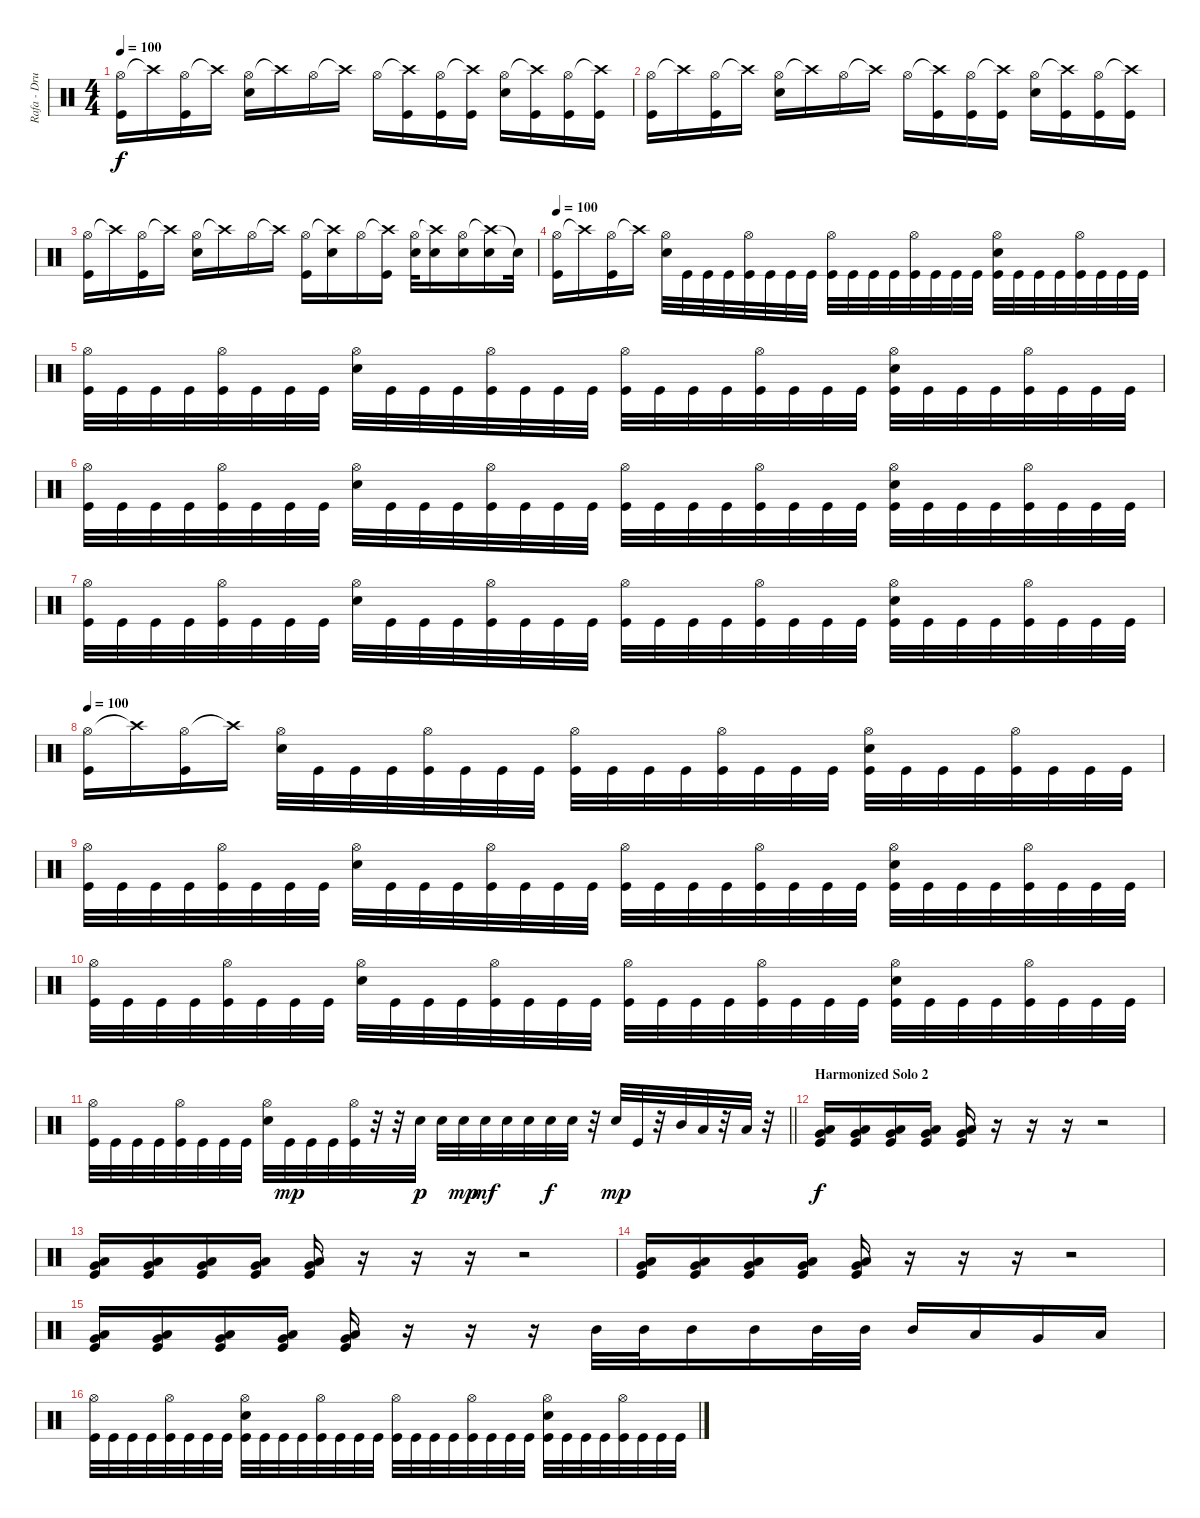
\track ("Rafa - Drums" "Rafa - Dru") {instrument percussion}
\staff {score}
\articulation defaults
\ts (4 4)
\tempo 100
\clef neutral
\ks c
("Hi-Hat (open)" "Kick (hit)").16{dy f} "Crash high (hit)"{t}.16 ("Hi-Hat (open)" "Kick (hit)").16 "Crash high (hit)"{t}.16 ("Hi-Hat (open)" "Electric Snare (hit)").16 "Crash high (hit)"{t}.16 "Hi-Hat (open)".16 "Crash high (hit)"{t}.16 "Hi-Hat (open)".16 ("Crash high (hit)"{t} "Kick (hit)").16 ("Hi-Hat (open)" "Kick (hit)").16 ("Crash high (hit)"{t} "Kick (hit)").16 ("Hi-Hat (open)" "Electric Snare (hit)").16 ("Crash high (hit)"{t} "Kick (hit)").16 ("Hi-Hat (open)" "Kick (hit)").16 ("Crash high (hit)"{t} "Kick (hit)").16 |
("Hi-Hat (open)" "Kick (hit)").16 "Crash high (hit)"{t}.16 ("Hi-Hat (open)" "Kick (hit)").16 "Crash high (hit)"{t}.16 ("Hi-Hat (open)" "Electric Snare (hit)").16 "Crash high (hit)"{t}.16 "Hi-Hat (open)".16 "Crash high (hit)"{t}.16 "Hi-Hat (open)".16 ("Crash high (hit)"{t} "Kick (hit)").16 ("Hi-Hat (open)" "Kick (hit)").16 ("Crash high (hit)"{t} "Kick (hit)").16 ("Hi-Hat (open)" "Electric Snare (hit)").16 ("Crash high (hit)"{t} "Kick (hit)").16 ("Hi-Hat (open)" "Kick (hit)").16 ("Crash high (hit)"{t} "Kick (hit)").16 |
("Hi-Hat (open)" "Kick (hit)").16 "Crash high (hit)"{t}.16 ("Hi-Hat (open)" "Kick (hit)").16 "Crash high (hit)"{t}.16 ("Hi-Hat (open)" "Electric Snare (hit)").16 "Crash high (hit)"{t}.16 "Hi-Hat (open)".16 "Crash high (hit)"{t}.16 ("Hi-Hat (open)" "Kick (hit)").16 ("Crash high (hit)"{t} "Electric Snare (hit)").16 "Hi-Hat (open)".16 ("Crash high (hit)"{t} "Kick (hit)").16 ("Hi-Hat (open)" "Electric Snare (hit)").32 ("Crash high (hit)"{t} "Electric Snare (hit)").16 ("Hi-Hat (open)" "Electric Snare (hit)").16 ("Crash high (hit)"{t} "Electric Snare (hit)").16 "Snare (hit)"{t}.32 |
\tempo 100
("Hi-Hat (open)" "Kick (hit)").16 "Crash high (hit)"{t}.16 ("Hi-Hat (open)" "Kick (hit)").16 "Crash high (hit)"{t}.16 ("Hi-Hat (open)" "Electric Snare (hit)").32 "Kick (hit)".32 "Kick (hit)".32 "Kick (hit)".32 ("Hi-Hat (open)" "Kick (hit)").32 "Kick (hit)".32 "Kick (hit)".32 "Kick (hit)".32 ("Hi-Hat (open)" "Kick (hit)").32 "Kick (hit)".32 "Kick (hit)".32 "Kick (hit)".32 ("Hi-Hat (open)" "Kick (hit)").32 "Kick (hit)".32 "Kick (hit)".32 "Kick (hit)".32 ("Hi-Hat (open)" "Electric Snare (hit)" "Kick (hit)").32 "Kick (hit)".32 "Kick (hit)".32 "Kick (hit)".32 ("Hi-Hat (open)" "Kick (hit)").32 "Kick (hit)".32 "Kick (hit)".32 "Kick (hit)".32 |
("Hi-Hat (open)" "Kick (hit)").32 "Kick (hit)".32 "Kick (hit)".32 "Kick (hit)".32 ("Hi-Hat (open)" "Kick (hit)").32 "Kick (hit)".32 "Kick (hit)".32 "Kick (hit)".32 ("Hi-Hat (open)" "Electric Snare (hit)").32 "Kick (hit)".32 "Kick (hit)".32 "Kick (hit)".32 ("Hi-Hat (open)" "Kick (hit)").32 "Kick (hit)".32 "Kick (hit)".32 "Kick (hit)".32 ("Hi-Hat (open)" "Kick (hit)").32 "Kick (hit)".32 "Kick (hit)".32 "Kick (hit)".32 ("Hi-Hat (open)" "Kick (hit)").32 "Kick (hit)".32 "Kick (hit)".32 "Kick (hit)".32 ("Hi-Hat (open)" "Electric Snare (hit)" "Kick (hit)").32 "Kick (hit)".32 "Kick (hit)".32 "Kick (hit)".32 ("Hi-Hat (open)" "Kick (hit)").32 "Kick (hit)".32 "Kick (hit)".32 "Kick (hit)".32 |
("Hi-Hat (open)" "Kick (hit)").32 "Kick (hit)".32 "Kick (hit)".32 "Kick (hit)".32 ("Hi-Hat (open)" "Kick (hit)").32 "Kick (hit)".32 "Kick (hit)".32 "Kick (hit)".32 ("Hi-Hat (open)" "Electric Snare (hit)").32 "Kick (hit)".32 "Kick (hit)".32 "Kick (hit)".32 ("Hi-Hat (open)" "Kick (hit)").32 "Kick (hit)".32 "Kick (hit)".32 "Kick (hit)".32 ("Hi-Hat (open)" "Kick (hit)").32 "Kick (hit)".32 "Kick (hit)".32 "Kick (hit)".32 ("Hi-Hat (open)" "Kick (hit)").32 "Kick (hit)".32 "Kick (hit)".32 "Kick (hit)".32 ("Hi-Hat (open)" "Electric Snare (hit)" "Kick (hit)").32 "Kick (hit)".32 "Kick (hit)".32 "Kick (hit)".32 ("Hi-Hat (open)" "Kick (hit)").32 "Kick (hit)".32 "Kick (hit)".32 "Kick (hit)".32 |
("Hi-Hat (open)" "Kick (hit)").32 "Kick (hit)".32 "Kick (hit)".32 "Kick (hit)".32 ("Hi-Hat (open)" "Kick (hit)").32 "Kick (hit)".32 "Kick (hit)".32 "Kick (hit)".32 ("Hi-Hat (open)" "Electric Snare (hit)").32 "Kick (hit)".32 "Kick (hit)".32 "Kick (hit)".32 ("Hi-Hat (open)" "Kick (hit)").32 "Kick (hit)".32 "Kick (hit)".32 "Kick (hit)".32 ("Hi-Hat (open)" "Kick (hit)").32 "Kick (hit)".32 "Kick (hit)".32 "Kick (hit)".32 ("Hi-Hat (open)" "Kick (hit)").32 "Kick (hit)".32 "Kick (hit)".32 "Kick (hit)".32 ("Hi-Hat (open)" "Electric Snare (hit)" "Kick (hit)").32 "Kick (hit)".32 "Kick (hit)".32 "Kick (hit)".32 ("Hi-Hat (open)" "Kick (hit)").32 "Kick (hit)".32 "Kick (hit)".32 "Kick (hit)".32 |
\tempo 100
("Hi-Hat (open)" "Kick (hit)").16 "Crash high (hit)"{t}.16 ("Hi-Hat (open)" "Kick (hit)").16 "Crash high (hit)"{t}.16 ("Hi-Hat (open)" "Electric Snare (hit)").32 "Kick (hit)".32 "Kick (hit)".32 "Kick (hit)".32 ("Hi-Hat (open)" "Kick (hit)").32 "Kick (hit)".32 "Kick (hit)".32 "Kick (hit)".32 ("Hi-Hat (open)" "Kick (hit)").32 "Kick (hit)".32 "Kick (hit)".32 "Kick (hit)".32 ("Hi-Hat (open)" "Kick (hit)").32 "Kick (hit)".32 "Kick (hit)".32 "Kick (hit)".32 ("Hi-Hat (open)" "Electric Snare (hit)" "Kick (hit)").32 "Kick (hit)".32 "Kick (hit)".32 "Kick (hit)".32 ("Hi-Hat (open)" "Kick (hit)").32 "Kick (hit)".32 "Kick (hit)".32 "Kick (hit)".32 |
("Hi-Hat (open)" "Kick (hit)").32 "Kick (hit)".32 "Kick (hit)".32 "Kick (hit)".32 ("Hi-Hat (open)" "Kick (hit)").32 "Kick (hit)".32 "Kick (hit)".32 "Kick (hit)".32 ("Hi-Hat (open)" "Electric Snare (hit)").32 "Kick (hit)".32 "Kick (hit)".32 "Kick (hit)".32 ("Hi-Hat (open)" "Kick (hit)").32 "Kick (hit)".32 "Kick (hit)".32 "Kick (hit)".32 ("Hi-Hat (open)" "Kick (hit)").32 "Kick (hit)".32 "Kick (hit)".32 "Kick (hit)".32 ("Hi-Hat (open)" "Kick (hit)").32 "Kick (hit)".32 "Kick (hit)".32 "Kick (hit)".32 ("Hi-Hat (open)" "Electric Snare (hit)" "Kick (hit)").32 "Kick (hit)".32 "Kick (hit)".32 "Kick (hit)".32 ("Hi-Hat (open)" "Kick (hit)").32 "Kick (hit)".32 "Kick (hit)".32 "Kick (hit)".32 |
("Hi-Hat (open)" "Kick (hit)").32 "Kick (hit)".32 "Kick (hit)".32 "Kick (hit)".32 ("Hi-Hat (open)" "Kick (hit)").32 "Kick (hit)".32 "Kick (hit)".32 "Kick (hit)".32 ("Hi-Hat (open)" "Electric Snare (hit)").32 "Kick (hit)".32 "Kick (hit)".32 "Kick (hit)".32 ("Hi-Hat (open)" "Kick (hit)").32 "Kick (hit)".32 "Kick (hit)".32 "Kick (hit)".32 ("Hi-Hat (open)" "Kick (hit)").32 "Kick (hit)".32 "Kick (hit)".32 "Kick (hit)".32 ("Hi-Hat (open)" "Kick (hit)").32 "Kick (hit)".32 "Kick (hit)".32 "Kick (hit)".32 ("Hi-Hat (open)" "Electric Snare (hit)" "Kick (hit)").32 "Kick (hit)".32 "Kick (hit)".32 "Kick (hit)".32 ("Hi-Hat (open)" "Kick (hit)").32 "Kick (hit)".32 "Kick (hit)".32 "Kick (hit)".32 |
\barLineRight lightlight
("Hi-Hat (open)" "Kick (hit)").32 "Kick (hit)".32 "Kick (hit)".32 "Kick (hit)".32 ("Hi-Hat (open)" "Kick (hit)").32 "Kick (hit)".32 "Kick (hit)".32 "Kick (hit)".32 ("Hi-Hat (open)" "Electric Snare (hit)").32 "Kick (hit)".32{dy mp} "Kick (hit)".32 "Kick (hit)".32 ("Hi-Hat (open)" "Kick (hit)").32 r.32 r.32 "Electric Snare (hit)".32{dy p} "Electric Snare (hit)".32 "Electric Snare (hit)".32{dy mp} "Electric Snare (hit)".32{dy mf} "Electric Snare (hit)".32 "Electric Snare (hit)".32 "Electric Snare (hit)".32{dy f} "Electric Snare (hit)".32 r.32 "Electric Snare (hit)".32{dy mp} "Kick (hit)".32 r.32 "Mid Tom (hit)".32 "Low Tom (hit)".32 r.32 "Low Tom (hit)".32 r.32 |
\section ("" "Harmonized Solo 2")
("Very Low Tom (hit)" "Low Floor Tom (hit)" "Kick (hit)").16{dy f} ("Very Low Tom (hit)" "Low Floor Tom (hit)" "Kick (hit)").16 ("Very Low Tom (hit)" "Low Floor Tom (hit)" "Kick (hit)").16 ("Very Low Tom (hit)" "Low Floor Tom (hit)" "Kick (hit)").16 ("Very Low Tom (hit)" "Low Floor Tom (hit)" "Kick (hit)").16 r.16 r.16 r.16 r.2 |
("Very Low Tom (hit)" "Low Floor Tom (hit)" "Kick (hit)").16 ("Very Low Tom (hit)" "Low Floor Tom (hit)" "Kick (hit)").16 ("Very Low Tom (hit)" "Low Floor Tom (hit)" "Kick (hit)").16 ("Very Low Tom (hit)" "Low Floor Tom (hit)" "Kick (hit)").16 ("Very Low Tom (hit)" "Low Floor Tom (hit)" "Kick (hit)").16 r.16 r.16 r.16 r.2 |
("Very Low Tom (hit)" "Low Floor Tom (hit)" "Kick (hit)").16 ("Very Low Tom (hit)" "Low Floor Tom (hit)" "Kick (hit)").16 ("Very Low Tom (hit)" "Low Floor Tom (hit)" "Kick (hit)").16 ("Very Low Tom (hit)" "Low Floor Tom (hit)" "Kick (hit)").16 ("Very Low Tom (hit)" "Low Floor Tom (hit)" "Kick (hit)").16 r.16 r.16 r.16 r.2 |
("Very Low Tom (hit)" "Low Floor Tom (hit)" "Kick (hit)").16 ("Very Low Tom (hit)" "Low Floor Tom (hit)" "Kick (hit)").16 ("Very Low Tom (hit)" "Low Floor Tom (hit)" "Kick (hit)").16 ("Very Low Tom (hit)" "Low Floor Tom (hit)" "Kick (hit)").16 ("Very Low Tom (hit)" "Low Floor Tom (hit)" "Kick (hit)").16 r.16 r.16 r.16 "Mid Tom (hit)".32 "Mid Tom (hit)".32 "Mid Tom (hit)".16 "Mid Tom (hit)".16 "Mid Tom (hit)".32 "Mid Tom (hit)".32 "Mid Tom (hit)".16 "Low Tom (hit)".16 "Very Low Tom (hit)".16 "Low Floor Tom (hit)".16 |
("Hi-Hat (open)" "Kick (hit)").32 "Kick (hit)".32 "Kick (hit)".32 "Kick (hit)".32 ("Hi-Hat (open)" "Kick (hit)").32 "Kick (hit)".32 "Kick (hit)".32 "Kick (hit)".32 ("Hi-Hat (open)" "Electric Snare (hit)" "Kick (hit)").32 "Kick (hit)".32 "Kick (hit)".32 "Kick (hit)".32 ("Hi-Hat (open)" "Kick (hit)").32 "Kick (hit)".32 "Kick (hit)".32 "Kick (hit)".32 ("Hi-Hat (open)" "Kick (hit)").32 "Kick (hit)".32 "Kick (hit)".32 "Kick (hit)".32 ("Hi-Hat (open)" "Kick (hit)").32 "Kick (hit)".32 "Kick (hit)".32 "Kick (hit)".32 ("Electric Snare (hit)" "Hi-Hat (open)" "Kick (hit)").32 "Kick (hit)".32 "Kick (hit)".32 "Kick (hit)".32 ("Hi-Hat (open)" "Kick (hit)").32 "Kick (hit)".32 "Kick (hit)".32 "Kick (hit)".32
